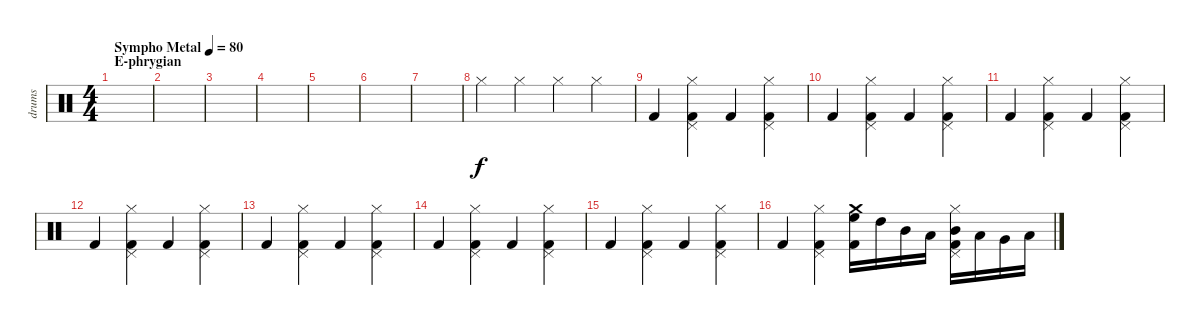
\track ("drums" "drums") {instrument percussion}
\staff {score}
\articulation defaults
\ts (4 4)
\section ("" "E-phrygian")
\tempo (80 "Sympho Metal")
\clef neutral
\ks c
|
|
|
|
|
|
|
"Hi-Hat (closed)".4 "Hi-Hat (closed)".4 "Hi-Hat (closed)".4 "Hi-Hat (closed)".4 |
"Kick (hit) 2".4 ("Kick (hit) 2" "Pedal Hi-Hat (hit)" "Hi-Hat (closed)").4 "Kick (hit) 2".4 ("Kick (hit) 2" "Pedal Hi-Hat (hit)" "Hi-Hat (closed)").4 |
"Kick (hit) 2".4 ("Kick (hit) 2" "Pedal Hi-Hat (hit)" "Hi-Hat (closed)").4 "Kick (hit) 2".4 ("Kick (hit) 2" "Pedal Hi-Hat (hit)" "Hi-Hat (closed)").4 |
"Kick (hit) 2".4 ("Kick (hit) 2" "Pedal Hi-Hat (hit)" "Hi-Hat (closed)").4 "Kick (hit) 2".4 ("Kick (hit) 2" "Pedal Hi-Hat (hit)" "Hi-Hat (closed)").4 |
"Kick (hit) 2".4 ("Kick (hit) 2" "Pedal Hi-Hat (hit)" "Hi-Hat (closed)").4 "Kick (hit) 2".4 ("Kick (hit) 2" "Pedal Hi-Hat (hit)" "Hi-Hat (closed)").4 |
"Kick (hit) 2".4 ("Kick (hit) 2" "Pedal Hi-Hat (hit)" "Hi-Hat (closed)").4 "Kick (hit) 2".4 ("Kick (hit) 2" "Pedal Hi-Hat (hit)" "Hi-Hat (closed)").4 |
"Kick (hit) 2".4 ("Kick (hit) 2" "Pedal Hi-Hat (hit)" "Hi-Hat (closed)").4 "Kick (hit) 2".4 ("Kick (hit) 2" "Pedal Hi-Hat (hit)" "Hi-Hat (closed)").4 |
"Kick (hit) 2".4 ("Kick (hit) 2" "Pedal Hi-Hat (hit)" "Hi-Hat (closed)").4 "Kick (hit) 2".4 ("Kick (hit) 2" "Pedal Hi-Hat (hit)" "Hi-Hat (closed)").4 |
"Kick (hit) 2".4 ("Kick (hit) 2" "Pedal Hi-Hat (hit)" "Hi-Hat (closed)").4 ("Kick (hit) 2" "High Floor Tom (hit)" "Crash medium (hit)").16 "High Tom (hit)".16 "Mid Tom (hit)".16 "Low Tom (hit)".16 ("Kick (hit) 2" "Pedal Hi-Hat (hit)" "Hi-Hat (closed)" "Mid Tom (hit)").16 "Low Tom (hit)".16 "Very Low Tom (hit)".16 "Low Floor Tom (hit)".16
